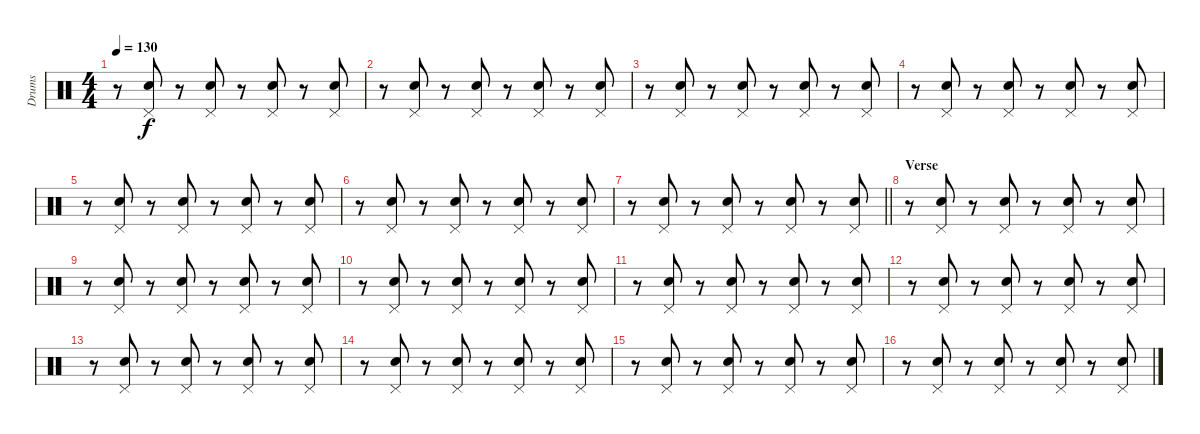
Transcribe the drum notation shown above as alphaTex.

\track ("Drums" "Drums") {instrument percussion}
\staff {score}
\articulation defaults
\ts (4 4)
\tempo 130
\clef neutral
\ks c
r.8{dy f} ("Snare (hit) 2" "Pedal Hi-Hat (hit)").8 r.8 ("Snare (hit) 2" "Pedal Hi-Hat (hit)").8 r.8 ("Snare (hit) 2" "Pedal Hi-Hat (hit)").8 r.8 ("Snare (hit) 2" "Pedal Hi-Hat (hit)").8 |
r.8 ("Snare (hit) 2" "Pedal Hi-Hat (hit)").8 r.8 ("Snare (hit) 2" "Pedal Hi-Hat (hit)").8 r.8 ("Snare (hit) 2" "Pedal Hi-Hat (hit)").8 r.8 ("Snare (hit) 2" "Pedal Hi-Hat (hit)").8 |
r.8 ("Snare (hit) 2" "Pedal Hi-Hat (hit)").8 r.8 ("Snare (hit) 2" "Pedal Hi-Hat (hit)").8 r.8 ("Snare (hit) 2" "Pedal Hi-Hat (hit)").8 r.8 ("Snare (hit) 2" "Pedal Hi-Hat (hit)").8 |
r.8 ("Snare (hit) 2" "Pedal Hi-Hat (hit)").8 r.8 ("Snare (hit) 2" "Pedal Hi-Hat (hit)").8 r.8 ("Snare (hit) 2" "Pedal Hi-Hat (hit)").8 r.8 ("Snare (hit) 2" "Pedal Hi-Hat (hit)").8 |
r.8 ("Snare (hit) 2" "Pedal Hi-Hat (hit)").8 r.8 ("Snare (hit) 2" "Pedal Hi-Hat (hit)").8 r.8 ("Snare (hit) 2" "Pedal Hi-Hat (hit)").8 r.8 ("Snare (hit) 2" "Pedal Hi-Hat (hit)").8 |
r.8 ("Snare (hit) 2" "Pedal Hi-Hat (hit)").8 r.8 ("Snare (hit) 2" "Pedal Hi-Hat (hit)").8 r.8 ("Snare (hit) 2" "Pedal Hi-Hat (hit)").8 r.8 ("Snare (hit) 2" "Pedal Hi-Hat (hit)").8 |
\barLineRight lightlight
r.8 ("Snare (hit) 2" "Pedal Hi-Hat (hit)").8 r.8 ("Snare (hit) 2" "Pedal Hi-Hat (hit)").8 r.8 ("Snare (hit) 2" "Pedal Hi-Hat (hit)").8 r.8 ("Snare (hit) 2" "Pedal Hi-Hat (hit)").8 |
\section ("" "Verse")
r.8 ("Snare (hit) 2" "Pedal Hi-Hat (hit)").8 r.8 ("Snare (hit) 2" "Pedal Hi-Hat (hit)").8 r.8 ("Snare (hit) 2" "Pedal Hi-Hat (hit)").8 r.8 ("Snare (hit) 2" "Pedal Hi-Hat (hit)").8 |
r.8 ("Snare (hit) 2" "Pedal Hi-Hat (hit)").8 r.8 ("Snare (hit) 2" "Pedal Hi-Hat (hit)").8 r.8 ("Snare (hit) 2" "Pedal Hi-Hat (hit)").8 r.8 ("Snare (hit) 2" "Pedal Hi-Hat (hit)").8 |
r.8 ("Snare (hit) 2" "Pedal Hi-Hat (hit)").8 r.8 ("Snare (hit) 2" "Pedal Hi-Hat (hit)").8 r.8 ("Snare (hit) 2" "Pedal Hi-Hat (hit)").8 r.8 ("Snare (hit) 2" "Pedal Hi-Hat (hit)").8 |
r.8 ("Snare (hit) 2" "Pedal Hi-Hat (hit)").8 r.8 ("Snare (hit) 2" "Pedal Hi-Hat (hit)").8 r.8 ("Snare (hit) 2" "Pedal Hi-Hat (hit)").8 r.8 ("Snare (hit) 2" "Pedal Hi-Hat (hit)").8 |
r.8 ("Snare (hit) 2" "Pedal Hi-Hat (hit)").8 r.8 ("Snare (hit) 2" "Pedal Hi-Hat (hit)").8 r.8 ("Snare (hit) 2" "Pedal Hi-Hat (hit)").8 r.8 ("Snare (hit) 2" "Pedal Hi-Hat (hit)").8 |
r.8 ("Snare (hit) 2" "Pedal Hi-Hat (hit)").8 r.8 ("Snare (hit) 2" "Pedal Hi-Hat (hit)").8 r.8 ("Snare (hit) 2" "Pedal Hi-Hat (hit)").8 r.8 ("Snare (hit) 2" "Pedal Hi-Hat (hit)").8 |
r.8 ("Snare (hit) 2" "Pedal Hi-Hat (hit)").8 r.8 ("Snare (hit) 2" "Pedal Hi-Hat (hit)").8 r.8 ("Snare (hit) 2" "Pedal Hi-Hat (hit)").8 r.8 ("Snare (hit) 2" "Pedal Hi-Hat (hit)").8 |
r.8 ("Snare (hit) 2" "Pedal Hi-Hat (hit)").8 r.8 ("Snare (hit) 2" "Pedal Hi-Hat (hit)").8 r.8 ("Snare (hit) 2" "Pedal Hi-Hat (hit)").8 r.8 ("Snare (hit) 2" "Pedal Hi-Hat (hit)").8 |
r.8 ("Snare (hit) 2" "Pedal Hi-Hat (hit)").8 r.8 ("Snare (hit) 2" "Pedal Hi-Hat (hit)").8 r.8 ("Snare (hit) 2" "Pedal Hi-Hat (hit)").8 r.8 ("Snare (hit) 2" "Pedal Hi-Hat (hit)").8
